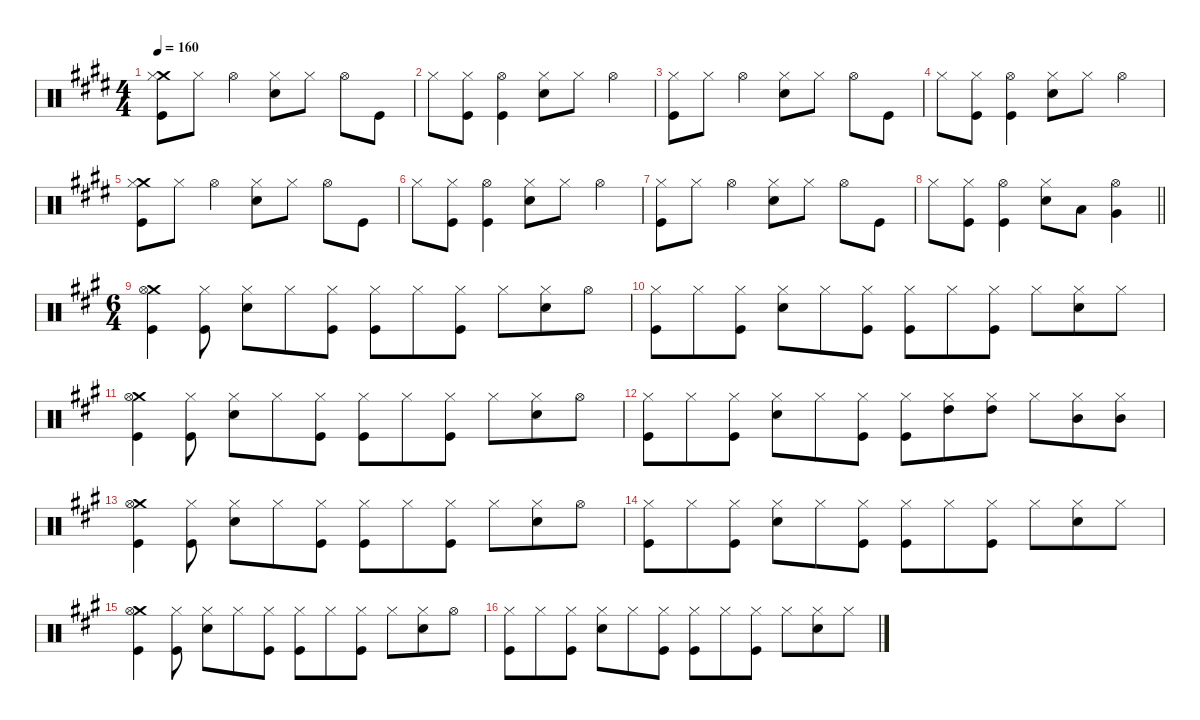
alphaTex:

\defaultSystemsLayout 4
\hideDynamics
\bracketExtendMode nobrackets
\singleTrackTrackNamePolicy hidden
\multiTrackTrackNamePolicy hidden
\firstSystemTrackNameMode fullname
\firstSystemTrackNameOrientation horizontal
\otherSystemsTrackNameOrientation horizontal
\track ("Drums" "drm.") {instrument percussion}
\staff {score}
\articulation defaults
\ts (4 4)
\tempo 160
\clef neutral
\ks c#minor
("Crash medium (hit)"{acc forcenatural} "Hi-Hat (closed)"{acc forcenatural} "Kick (hit)"{acc forcenatural}).8{dy f beam Down} "Hi-Hat (closed)"{acc forcenatural}.8{dy mf beam Down} "Hi-Hat (open)"{acc forcenatural}.4{dy f beam Down} ("Hi-Hat (closed)"{acc forcenatural} "Snare (hit) 2"{acc forcenatural}).8{beam Down} "Hi-Hat (closed)"{acc forcenatural}.8{dy mf beam Down} "Hi-Hat (open)"{acc forcenatural}.8{dy f beam Down} "Kick (hit)"{acc forcenatural}.8{beam Down} |
"Hi-Hat (closed)"{acc forcenatural}.8{beam Down} ("Hi-Hat (closed)"{acc forcenatural} "Kick (hit)"{acc forcenatural}).8{dy mf beam Down} ("Hi-Hat (open)"{acc forcenatural} "Kick (hit)"{acc forcenatural}).4{dy f beam Down} ("Hi-Hat (closed)"{acc forcenatural} "Snare (hit) 2"{acc forcenatural}).8{beam Down} "Hi-Hat (closed)"{acc forcenatural}.8{dy mf beam Down} "Hi-Hat (open)"{acc forcenatural}.4{dy f beam Down} |
("Hi-Hat (closed)"{acc forcenatural} "Kick (hit)"{acc forcenatural}).8{beam Down} "Hi-Hat (closed)"{acc forcenatural}.8{dy mf beam Down} "Hi-Hat (open)"{acc forcenatural}.4{dy f beam Down} ("Hi-Hat (closed)"{acc forcenatural} "Snare (hit) 2"{acc forcenatural}).8{beam Down} "Hi-Hat (closed)"{acc forcenatural}.8{dy mf beam Down} "Hi-Hat (open)"{acc forcenatural}.8{dy f beam Down} "Kick (hit)"{acc forcenatural}.8{beam Down} |
"Hi-Hat (closed)"{acc forcenatural}.8{beam Down} ("Hi-Hat (closed)"{acc forcenatural} "Kick (hit)"{acc forcenatural}).8{dy mf beam Down} ("Hi-Hat (open)"{acc forcenatural} "Kick (hit)"{acc forcenatural}).4{dy f beam Down} ("Hi-Hat (closed)"{acc forcenatural} "Snare (hit) 2"{acc forcenatural}).8{beam Down} "Hi-Hat (closed)"{acc forcenatural}.8{dy mf beam Down} "Hi-Hat (open)"{acc forcenatural}.4{dy f beam Down} |
("Crash medium (hit)"{acc forcenatural} "Hi-Hat (closed)"{acc forcenatural} "Kick (hit)"{acc forcenatural}).8{beam Down} "Hi-Hat (closed)"{acc forcenatural}.8{dy mf beam Down} "Hi-Hat (open)"{acc forcenatural}.4{dy f beam Down} ("Hi-Hat (closed)"{acc forcenatural} "Snare (hit) 2"{acc forcenatural}).8{beam Down} "Hi-Hat (closed)"{acc forcenatural}.8{dy mf beam Down} "Hi-Hat (open)"{acc forcenatural}.8{dy f beam Down} "Kick (hit)"{acc forcenatural}.8{beam Down} |
"Hi-Hat (closed)"{acc forcenatural}.8{beam Down} ("Hi-Hat (closed)"{acc forcenatural} "Kick (hit)"{acc forcenatural}).8{dy mf beam Down} ("Hi-Hat (open)"{acc forcenatural} "Kick (hit)"{acc forcenatural}).4{dy f beam Down} ("Hi-Hat (closed)"{acc forcenatural} "Snare (hit) 2"{acc forcenatural}).8{beam Down} "Hi-Hat (closed)"{acc forcenatural}.8{dy mf beam Down} "Hi-Hat (open)"{acc forcenatural}.4{dy f beam Down} |
("Hi-Hat (closed)"{acc forcenatural} "Kick (hit)"{acc forcenatural}).8{beam Down} "Hi-Hat (closed)"{acc forcenatural}.8{dy mf beam Down} "Hi-Hat (open)"{acc forcenatural}.4{dy f beam Down} ("Hi-Hat (closed)"{acc forcenatural} "Snare (hit) 2"{acc forcenatural}).8{beam Down} "Hi-Hat (closed)"{acc forcenatural}.8{dy mf beam Down} "Hi-Hat (open)"{acc forcenatural}.8{dy f beam Down} "Kick (hit)"{acc forcenatural}.8{beam Down} |
\barLineRight lightlight "Hi-Hat (closed)"{acc forcenatural}.8{beam Down}
("Hi-Hat (closed)"{acc forcenatural} "Kick (hit)"{acc forcenatural}).8{dy mf beam Down} ("Hi-Hat (open)"{acc forcenatural} "Kick (hit)"{acc forcenatural}).4{dy f beam Down} ("Hi-Hat (closed)"{acc forcenatural} "Snare (hit) 2"{acc forcenatural}).8{beam Down} "Low Tom (hit)"{acc forcenatural}.8{beam Down} ("Hi-Hat (open)"{acc forcenatural} "Very Low Tom (hit)"{acc forcenatural}).4{beam Down} |
\ts (6 4)
\beaming (8 3 3 3 3)
\ks f#minor
("Crash medium (hit)"{acc forcenatural} "Hi-Hat (open)"{acc forcenatural} "Kick (hit)"{acc forcenatural}).4{beam Down} ("Hi-Hat (closed)"{acc forcenatural} "Kick (hit)"{acc forcenatural}).8{beam Down} ("Hi-Hat (closed)"{acc forcenatural} "Snare (hit) 2"{acc forcenatural}).8{beam Down} "Hi-Hat (closed)"{acc forcenatural}.8{beam Down} ("Hi-Hat (closed)"{acc forcenatural} "Kick (hit)"{acc forcenatural}).8{beam Down} ("Hi-Hat (closed)"{acc forcenatural} "Kick (hit)"{acc forcenatural}).8{beam Down} "Hi-Hat (closed)"{acc forcenatural}.8{beam Down} ("Hi-Hat (closed)"{acc forcenatural} "Kick (hit)"{acc forcenatural}).8{beam Down} "Hi-Hat (closed)"{acc forcenatural}.8{beam Down} ("Hi-Hat (closed)"{acc forcenatural} "Snare (hit) 2"{acc forcenatural}).8{beam Down} "Hi-Hat (open)"{acc forcenatural}.8{beam Down} |
("Hi-Hat (closed)"{acc forcenatural} "Kick (hit)"{acc forcenatural}).8{beam Down} "Hi-Hat (closed)"{acc forcenatural}.8{beam Down} ("Hi-Hat (closed)"{acc forcenatural} "Kick (hit)"{acc forcenatural}).8{beam Down} ("Hi-Hat (closed)"{acc forcenatural} "Snare (hit) 2"{acc forcenatural}).8{beam Down} "Hi-Hat (closed)"{acc forcenatural}.8{beam Down} ("Hi-Hat (closed)"{acc forcenatural} "Kick (hit)"{acc forcenatural}).8{beam Down} ("Hi-Hat (closed)"{acc forcenatural} "Kick (hit)"{acc forcenatural}).8{beam Down} "Hi-Hat (closed)"{acc forcenatural}.8{beam Down} ("Hi-Hat (closed)"{acc forcenatural} "Kick (hit)"{acc forcenatural}).8{beam Down} "Hi-Hat (closed)"{acc forcenatural}.8{beam Down} ("Hi-Hat (closed)"{acc forcenatural} "Snare (hit) 2"{acc forcenatural}).8{beam Down} "Hi-Hat (closed)"{acc forcenatural}.8{beam Down} |
("Crash medium (hit)"{acc forcenatural} "Hi-Hat (open)"{acc forcenatural} "Kick (hit)"{acc forcenatural}).4{beam Down} ("Hi-Hat (closed)"{acc forcenatural} "Kick (hit)"{acc forcenatural}).8{beam Down} ("Hi-Hat (closed)"{acc forcenatural} "Snare (hit) 2"{acc forcenatural}).8{beam Down} "Hi-Hat (closed)"{acc forcenatural}.8{beam Down} ("Hi-Hat (closed)"{acc forcenatural} "Kick (hit)"{acc forcenatural}).8{beam Down} ("Hi-Hat (closed)"{acc forcenatural} "Kick (hit)"{acc forcenatural}).8{beam Down} "Hi-Hat (closed)"{acc forcenatural}.8{beam Down} ("Hi-Hat (closed)"{acc forcenatural} "Kick (hit)"{acc forcenatural}).8{beam Down} "Hi-Hat (closed)"{acc forcenatural}.8{beam Down} ("Hi-Hat (closed)"{acc forcenatural} "Snare (hit) 2"{acc forcenatural}).8{beam Down} "Hi-Hat (open)"{acc forcenatural}.8{beam Down} |
("Hi-Hat (closed)"{acc forcenatural} "Kick (hit)"{acc forcenatural}).8{beam Down} "Hi-Hat (closed)"{acc forcenatural}.8{beam Down} ("Hi-Hat (closed)"{acc forcenatural} "Kick (hit)"{acc forcenatural}).8{beam Down} ("Hi-Hat (closed)"{acc forcenatural} "Snare (hit) 2"{acc forcenatural}).8{beam Down} "Hi-Hat (closed)"{acc forcenatural}.8{beam Down} ("Hi-Hat (closed)"{acc forcenatural} "Kick (hit)"{acc forcenatural}).8{beam Down} ("Hi-Hat (closed)"{acc forcenatural} "Kick (hit)"{acc forcenatural}).8{beam Down} ("Hi-Hat (closed)"{acc forcenatural} "High Tom (hit)"{acc forcenatural}).8{beam Down} ("Hi-Hat (closed)"{acc forcenatural} "High Tom (hit)"{acc forcenatural}).8{beam Down} "Hi-Hat (closed)"{acc forcenatural}.8{beam Down} ("Hi-Hat (closed)"{acc forcenatural} "Mid Tom (hit)"{acc forcenatural}).8{beam Down} ("Hi-Hat (closed)"{acc forcenatural} "Mid Tom (hit)"{acc forcenatural}).8{beam Down} |
("Crash medium (hit)"{acc forcenatural} "Hi-Hat (open)"{acc forcenatural} "Kick (hit)"{acc forcenatural}).4{beam Down} ("Hi-Hat (closed)"{acc forcenatural} "Kick (hit)"{acc forcenatural}).8{beam Down} ("Hi-Hat (closed)"{acc forcenatural} "Snare (hit) 2"{acc forcenatural}).8{beam Down} "Hi-Hat (closed)"{acc forcenatural}.8{beam Down} ("Hi-Hat (closed)"{acc forcenatural} "Kick (hit)"{acc forcenatural}).8{beam Down} ("Hi-Hat (closed)"{acc forcenatural} "Kick (hit)"{acc forcenatural}).8{beam Down} "Hi-Hat (closed)"{acc forcenatural}.8{beam Down} ("Hi-Hat (closed)"{acc forcenatural} "Kick (hit)"{acc forcenatural}).8{beam Down} "Hi-Hat (closed)"{acc forcenatural}.8{beam Down} ("Hi-Hat (closed)"{acc forcenatural} "Snare (hit) 2"{acc forcenatural}).8{beam Down} "Hi-Hat (open)"{acc forcenatural}.8{beam Down} |
("Hi-Hat (closed)"{acc forcenatural} "Kick (hit)"{acc forcenatural}).8{beam Down} "Hi-Hat (closed)"{acc forcenatural}.8{beam Down} ("Hi-Hat (closed)"{acc forcenatural} "Kick (hit)"{acc forcenatural}).8{beam Down} ("Hi-Hat (closed)"{acc forcenatural} "Snare (hit) 2"{acc forcenatural}).8{beam Down} "Hi-Hat (closed)"{acc forcenatural}.8{beam Down} ("Hi-Hat (closed)"{acc forcenatural} "Kick (hit)"{acc forcenatural}).8{beam Down} ("Hi-Hat (closed)"{acc forcenatural} "Kick (hit)"{acc forcenatural}).8{beam Down} "Hi-Hat (closed)"{acc forcenatural}.8{beam Down} ("Hi-Hat (closed)"{acc forcenatural} "Kick (hit)"{acc forcenatural}).8{beam Down} "Hi-Hat (closed)"{acc forcenatural}.8{beam Down} ("Hi-Hat (closed)"{acc forcenatural} "Snare (hit) 2"{acc forcenatural}).8{beam Down} "Hi-Hat (closed)"{acc forcenatural}.8{beam Down} |
("Crash medium (hit)"{acc forcenatural} "Hi-Hat (open)"{acc forcenatural} "Kick (hit)"{acc forcenatural}).4{beam Down} ("Hi-Hat (closed)"{acc forcenatural} "Kick (hit)"{acc forcenatural}).8{beam Down} ("Hi-Hat (closed)"{acc forcenatural} "Snare (hit) 2"{acc forcenatural}).8{beam Down} "Hi-Hat (closed)"{acc forcenatural}.8{beam Down} ("Hi-Hat (closed)"{acc forcenatural} "Kick (hit)"{acc forcenatural}).8{beam Down} ("Hi-Hat (closed)"{acc forcenatural} "Kick (hit)"{acc forcenatural}).8{beam Down} "Hi-Hat (closed)"{acc forcenatural}.8{beam Down} ("Hi-Hat (closed)"{acc forcenatural} "Kick (hit)"{acc forcenatural}).8{beam Down} "Hi-Hat (closed)"{acc forcenatural}.8{beam Down} ("Hi-Hat (closed)"{acc forcenatural} "Snare (hit) 2"{acc forcenatural}).8{beam Down} "Hi-Hat (open)"{acc forcenatural}.8{beam Down} |
("Hi-Hat (closed)"{acc forcenatural} "Kick (hit)"{acc forcenatural}).8{beam Down} "Hi-Hat (closed)"{acc forcenatural}.8{beam Down} ("Hi-Hat (closed)"{acc forcenatural} "Kick (hit)"{acc forcenatural}).8{beam Down} ("Hi-Hat (closed)"{acc forcenatural} "Snare (hit) 2"{acc forcenatural}).8{beam Down} "Hi-Hat (closed)"{acc forcenatural}.8{beam Down} ("Hi-Hat (closed)"{acc forcenatural} "Kick (hit)"{acc forcenatural}).8{beam Down} ("Hi-Hat (closed)"{acc forcenatural} "Kick (hit)"{acc forcenatural}).8{beam Down} "Hi-Hat (closed)"{acc forcenatural}.8{beam Down} ("Hi-Hat (closed)"{acc forcenatural} "Kick (hit)"{acc forcenatural}).8{beam Down} "Hi-Hat (closed)"{acc forcenatural}.8{beam Down} ("Hi-Hat (closed)"{acc forcenatural} "Snare (hit) 2"{acc forcenatural}).8{beam Down} "Hi-Hat (closed)"{acc forcenatural}.8{beam Down}
